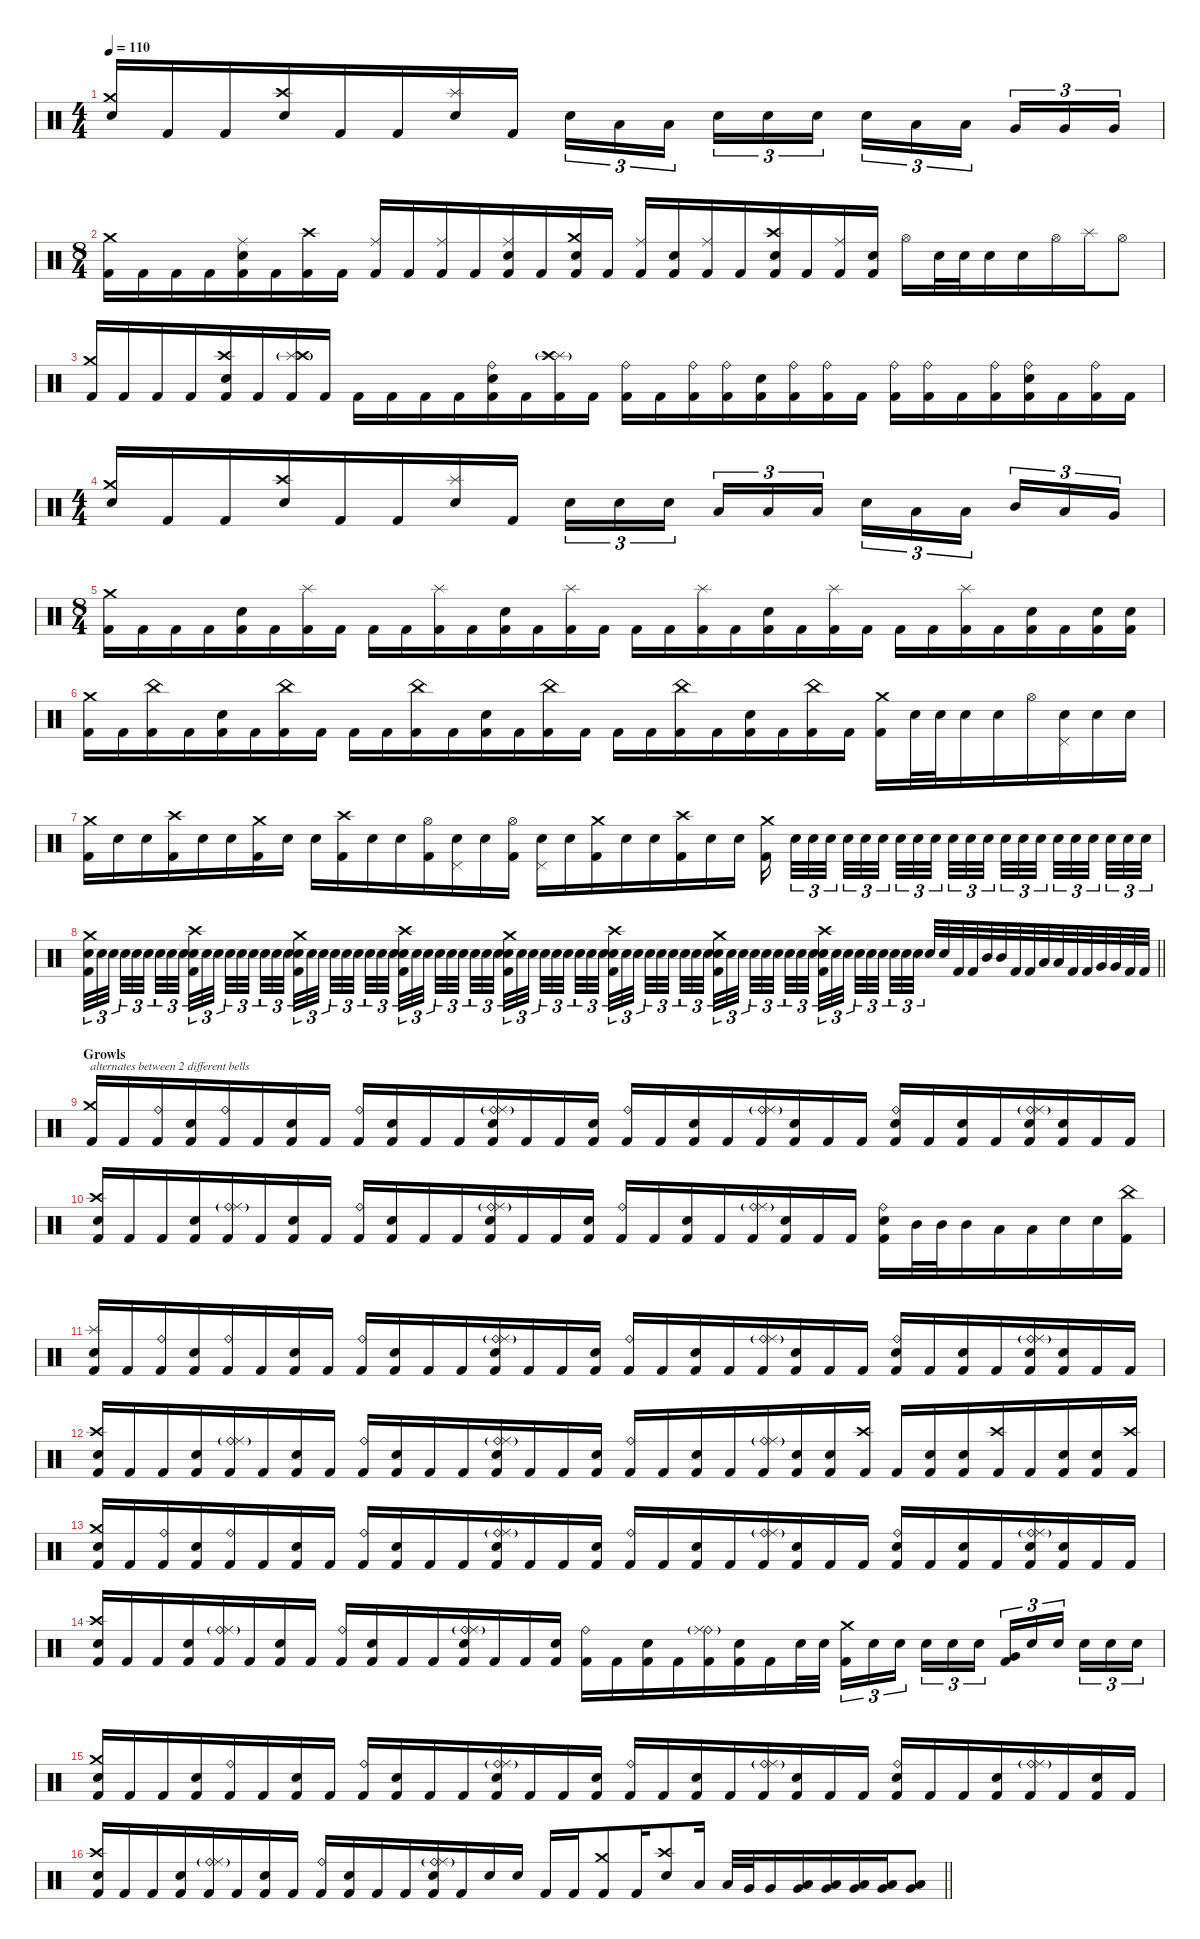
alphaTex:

\defaultSystemsLayout 4
\hideDynamics
\bracketExtendMode nobrackets
\singleTrackTrackNamePolicy hidden
\multiTrackTrackNamePolicy hidden
\firstSystemTrackNameMode fullname
\firstSystemTrackNameOrientation horizontal
\otherSystemsTrackNameOrientation horizontal
\track ("Drums" "drm.") {instrument percussion}
\staff {score}
\articulation defaults
\ts (4 4)
\beaming (8 4 4 4 4)
\tempo 110
\clef neutral
\ks c
("Crash medium (hit)" "Snare (hit) 2").16{dy f beam Up} "Kick (hit) 2".16{beam Up} "Kick (hit) 2".16{beam Up} ("Crash high (hit)" "Snare (hit) 2").16{beam Up} "Kick (hit) 2".16{beam Up} "Kick (hit) 2".16{beam Up} ("Splash (hit)" "Snare (hit) 2").16{beam Up} "Kick (hit) 2".16{beam Up} "Snare (hit) 2".16{tu (3 2) beam Down} "Low Tom (hit)".16{tu (3 2) beam Down} "Low Tom (hit)".16{tu (3 2) beam Down} "Snare (hit) 2".16{tu (3 2) beam Down} "Snare (hit) 2".16{tu (3 2) beam Down} "Snare (hit) 2".16{tu (3 2) beam Down} "Snare (hit) 2".16{tu (3 2) beam Down} "Low Tom (hit)".16{tu (3 2) beam Down} "Low Tom (hit)".16{tu (3 2) beam Down} "Very Low Tom (hit)".16{tu (3 2) beam Up} "Very Low Tom (hit)".16{tu (3 2) beam Up} "Very Low Tom (hit)".16{tu (3 2) beam Up} |
\ts (8 4)
\beaming (8 4 4 4 4)
("Crash medium (hit)" "Kick (hit) 2").16{beam Down} "Kick (hit) 2".16{beam Down} "Kick (hit) 2".16{beam Down} "Kick (hit) 2".16{beam Down} ("Ride (middle)" "Snare (hit) 2" "Kick (hit) 2").16{beam Down} "Kick (hit) 2".16{beam Down} ("Crash high (hit)" "Kick (hit) 2").16{beam Down} "Kick (hit) 2".16{beam Down} ("Ride (middle)" "Kick (hit) 2").16{beam Up} "Kick (hit) 2".16{beam Up} ("Ride (middle)" "Kick (hit) 2").16{beam Up} "Kick (hit) 2".16{beam Up} ("Ride (middle)" "Snare (hit) 2" "Kick (hit) 2").16{beam Up} "Kick (hit) 2".16{beam Up} ("Crash medium (hit)" "Snare (hit) 2" "Kick (hit) 2").16{beam Up} "Kick (hit) 2".16{beam Up} ("Ride (middle)" "Kick (hit) 2").16{beam Up} ("Snare (hit) 2" "Kick (hit) 2").16{beam Up} ("Ride (middle)" "Kick (hit) 2").16{beam Up} "Kick (hit) 2".16{beam Up} ("Crash high (hit)" "Snare (hit) 2" "Kick (hit) 2").16{beam Up} "Kick (hit) 2".16{beam Up} ("Ride (middle)" "Kick (hit) 2").16{beam Up} ("Snare (hit) 2" "Kick (hit) 2").16{beam Up} "Hi-Hat (open)".16{beam Down} "Snare (hit) 2".32{dy p beam Down} "Snare (hit) 2".32{dy mp beam Down} "Snare (hit) 2".16{dy f beam Down} "Snare (hit) 2".16{beam Down} "Hi-Hat (open)".16{beam Down} "Splash (hit)".16{beam Down} "Hi-Hat (open)".8{beam Down} |
("Crash medium (hit)" "Kick (hit) 2").16{beam Up} "Kick (hit) 2".16{beam Up} "Kick (hit) 2".16{beam Up} "Kick (hit) 2".16{beam Up} ("Crash high (hit)" "Snare (hit) 2" "Kick (hit) 2").16{beam Up} "Kick (hit) 2".16{beam Up} ("Splash (hit)" "Crash high (hit)"{g} "Kick (hit) 2").16{beam Up} "Kick (hit) 2".16{beam Up} "Kick (hit) 2".16{beam Down} "Kick (hit) 2".16{beam Down} "Kick (hit) 2".16{beam Down} "Kick (hit) 2".16{beam Down} ("Ride (bell)" "Snare (hit) 2" "Kick (hit) 2").16{beam Down} "Kick (hit) 2".16{beam Down} ("Splash (hit)" "Crash high (hit)"{g} "Kick (hit) 2").16{beam Down} "Kick (hit) 2".16{beam Down} ("Ride (bell)" "Kick (hit) 2").16{dy p beam Down} "Kick (hit) 2".16{dy f beam Down} ("Ride (bell)" "Kick (hit) 2").16{dy mp beam Down} ("Ride (bell)" "Kick (hit) 2").16{dy mf beam Down} ("Snare (hit) 2" "Kick (hit) 2").16{dy f beam Down} ("Ride (bell)" "Kick (hit) 2").16{dy mp beam Down} ("Ride (bell)" "Kick (hit) 2").16{dy mf beam Down} "Kick (hit) 2".16{dy f beam Down} ("Ride (bell)" "Kick (hit) 2").16{dy mp beam Down} ("Ride (bell)" "Kick (hit) 2").16{dy mf beam Down} "Kick (hit) 2".16{dy f beam Down} ("Ride (bell)" "Kick (hit) 2").16{dy mp beam Down} ("Ride (bell)" "Snare (hit) 2" "Kick (hit) 2").16{dy mf beam Down} "Kick (hit) 2".16{dy f beam Down} ("Ride (bell)" "Kick (hit) 2").16{dy mp beam Down} "Kick (hit) 2".16{dy f beam Down} |
\ts (4 4)
\beaming (8 4 4 4 4)
("Crash medium (hit)" "Snare (hit) 2").16{beam Up} "Kick (hit) 2".16{beam Up} "Kick (hit) 2".16{beam Up} ("Crash high (hit)" "Snare (hit) 2").16{beam Up} "Kick (hit) 2".16{beam Up} "Kick (hit) 2".16{beam Up} ("Splash (hit)" "Snare (hit) 2").16{beam Up} "Kick (hit) 2".16{beam Up} "Snare (hit) 2".16{tu (3 2) beam Down} "Snare (hit) 2".16{tu (3 2) beam Down} "Snare (hit) 2".16{tu (3 2) beam Down} "Low Tom (hit)".16{tu (3 2) beam Up} "Low Tom (hit)".16{tu (3 2) beam Up} "Low Tom (hit)".16{tu (3 2) beam Up} "Snare (hit) 2".16{tu (3 2) beam Down} "Low Tom (hit)".16{tu (3 2) beam Down} "Low Tom (hit)".16{tu (3 2) beam Down} "Mid Tom (hit)".16{tu (3 2) beam Up} "Low Tom (hit)".16{tu (3 2) beam Up} "Very Low Tom (hit)".16{tu (3 2) beam Up} |
\ts (8 4)
\beaming (8 4 4 4 4)
("Crash medium (hit)" "Kick (hit) 2").16{beam Down} "Kick (hit) 2".16{beam Down} "Kick (hit) 2".16{beam Down} "Kick (hit) 2".16{beam Down} ("Snare (hit) 2" "Kick (hit) 2").16{beam Down} "Kick (hit) 2".16{beam Down} ("Splash (hit)" "Kick (hit) 2").16{beam Down} "Kick (hit) 2".16{beam Down} "Kick (hit) 2".16{beam Down} "Kick (hit) 2".16{beam Down} ("Splash (hit)" "Kick (hit) 2").16{beam Down} "Kick (hit) 2".16{beam Down} ("Snare (hit) 2" "Kick (hit) 2").16{beam Down} "Kick (hit) 2".16{beam Down} ("Splash (hit)" "Kick (hit) 2").16{beam Down} "Kick (hit) 2".16{beam Down} "Kick (hit) 2".16{beam Down} "Kick (hit) 2".16{beam Down} ("Splash (hit)" "Kick (hit) 2").16{beam Down} "Kick (hit) 2".16{beam Down} ("Snare (hit) 2" "Kick (hit) 2").16{beam Down} "Kick (hit) 2".16{beam Down} ("Splash (hit)" "Kick (hit) 2").16{beam Down} "Kick (hit) 2".16{beam Down} "Kick (hit) 2".16{beam Down} "Kick (hit) 2".16{beam Down} ("Splash (hit)" "Kick (hit) 2").16{beam Down} "Kick (hit) 2".16{beam Down} ("Snare (hit) 2" "Kick (hit) 2").16{beam Down} "Kick (hit) 2".16{beam Down} ("Snare (hit) 2" "Kick (hit) 2").16{beam Down} ("Snare (hit) 2" "Kick (hit) 2").16{beam Down} |
("Crash medium (hit)" "Kick (hit) 2").16{beam Down} "Kick (hit) 2".16{beam Down} ("China (hit)" "Kick (hit) 2").16{beam Down} "Kick (hit) 2".16{beam Down} ("Snare (hit) 2" "Kick (hit) 2").16{beam Down} "Kick (hit) 2".16{beam Down} ("China (hit)" "Kick (hit) 2").16{beam Down} "Kick (hit) 2".16{beam Down} "Kick (hit) 2".16{beam Down} "Kick (hit) 2".16{beam Down} ("China (hit)" "Kick (hit) 2").16{beam Down} "Kick (hit) 2".16{beam Down} ("Snare (hit) 2" "Kick (hit) 2").16{beam Down} "Kick (hit) 2".16{beam Down} ("China (hit)" "Kick (hit) 2").16{beam Down} "Kick (hit) 2".16{beam Down} "Kick (hit) 2".16{beam Down} "Kick (hit) 2".16{beam Down} ("China (hit)" "Kick (hit) 2").16{beam Down} "Kick (hit) 2".16{beam Down} ("Snare (hit) 2" "Kick (hit) 2").16{beam Down} "Kick (hit) 2".16{beam Down} ("China (hit)" "Kick (hit) 2").16{beam Down} "Kick (hit) 2".16{beam Down} ("Crash medium (hit)" "Kick (hit) 2").16{beam Down} "Snare (hit) 2".32{dy mp beam Down} "Snare (hit) 2".32{dy mf beam Down} "Snare (hit) 2".16{dy f beam Down} "Snare (hit) 2".16{beam Down} "Hi-Hat (open)".16{beam Down} ("Pedal Hi-Hat (hit)" "Snare (hit) 2").16{beam Down} "Snare (hit) 2".16{beam Down} "Snare (hit) 2".16{beam Down} |
("Crash medium (hit)" "Kick (hit) 2").16{beam Down} "Snare (hit) 2".16{beam Down} "Snare (hit) 2".16{beam Down} ("Crash high (hit)" "Kick (hit) 2").16{beam Down} "Snare (hit) 2".16{beam Down} "Snare (hit) 2".16{beam Down} ("Crash medium (hit)" "Kick (hit) 2").16{beam Down} "Snare (hit) 2".16{beam Down} "Snare (hit) 2".16{beam Down} ("Crash high (hit)" "Kick (hit) 2").16{beam Down} "Snare (hit) 2".16{beam Down} "Snare (hit) 2".16{beam Down} ("Hi-Hat (open)" "Kick (hit) 2").16{beam Down} ("Pedal Hi-Hat (hit)" "Snare (hit) 2").16{beam Down} "Snare (hit) 2".16{beam Down} ("Hi-Hat (open)" "Kick (hit) 2").16{beam Down} ("Pedal Hi-Hat (hit)" "Snare (hit) 2").16{beam Down} "Snare (hit) 2".16{beam Down} ("Crash medium (hit)" "Kick (hit) 2").16{beam Down} "Snare (hit) 2".16{beam Down} "Snare (hit) 2".16{beam Down} ("Crash high (hit)" "Kick (hit) 2").16{beam Down} "Snare (hit) 2".16{beam Down} "Snare (hit) 2".16{beam Down} ("Crash medium (hit)" "Kick (hit) 2").16{beam Down} "Snare (hit) 2".32{tu (3 2) dy p beam Down} "Snare (hit) 2".32{tu (3 2) beam Down} "Snare (hit) 2".32{tu (3 2) beam Down} "Snare (hit) 2".32{tu (3 2) beam Down} "Snare (hit) 2".32{tu (3 2) beam Down} "Snare (hit) 2".32{tu (3 2) beam Down} "Snare (hit) 2".32{tu (3 2) beam Down} "Snare (hit) 2".32{tu (3 2) beam Down} "Snare (hit) 2".32{tu (3 2) beam Down} "Snare (hit) 2".32{tu (3 2) beam Down} "Snare (hit) 2".32{tu (3 2) beam Down} "Snare (hit) 2".32{tu (3 2) beam Down} "Snare (hit) 2".32{tu (3 2) beam Down} "Snare (hit) 2".32{tu (3 2) beam Down} "Snare (hit) 2".32{tu (3 2) beam Down} "Snare (hit) 2".32{tu (3 2) beam Down} "Snare (hit) 2".32{tu (3 2) beam Down} "Snare (hit) 2".32{tu (3 2) beam Down} "Snare (hit) 2".32{tu (3 2) beam Down} "Snare (hit) 2".32{tu (3 2) beam Down} "Snare (hit) 2".32{tu (3 2) beam Down} |
\barLineRight lightlight
("Crash medium (hit)" "Snare (hit) 2" "Kick (hit) 2").32{tu (3 2) dy f beam Down} "Snare (hit) 2".32{tu (3 2) dy p beam Down} "Snare (hit) 2".32{tu (3 2) beam Down} "Snare (hit) 2".32{tu (3 2) beam Down} "Snare (hit) 2".32{tu (3 2) beam Down} "Snare (hit) 2".32{tu (3 2) beam Down} "Snare (hit) 2".32{tu (3 2) beam Down} "Snare (hit) 2".32{tu (3 2) beam Down} "Snare (hit) 2".32{tu (3 2) beam Down} ("Crash high (hit)" "Snare (hit) 2" "Kick (hit) 2").32{tu (3 2) dy f beam Down} "Snare (hit) 2".32{tu (3 2) dy p beam Down} "Snare (hit) 2".32{tu (3 2) beam Down} "Snare (hit) 2".32{tu (3 2) beam Down} "Snare (hit) 2".32{tu (3 2) beam Down} "Snare (hit) 2".32{tu (3 2) beam Down} "Snare (hit) 2".32{tu (3 2) beam Down} "Snare (hit) 2".32{tu (3 2) beam Down} "Snare (hit) 2".32{tu (3 2) beam Down} ("Crash medium (hit)" "Snare (hit) 2" "Kick (hit) 2").32{tu (3 2) dy f beam Down} "Snare (hit) 2".32{tu (3 2) dy p beam Down} "Snare (hit) 2".32{tu (3 2) beam Down} "Snare (hit) 2".32{tu (3 2) beam Down} "Snare (hit) 2".32{tu (3 2) beam Down} "Snare (hit) 2".32{tu (3 2) beam Down} "Snare (hit) 2".32{tu (3 2) beam Down} "Snare (hit) 2".32{tu (3 2) beam Down} "Snare (hit) 2".32{tu (3 2) beam Down} ("Crash high (hit)" "Snare (hit) 2" "Kick (hit) 2").32{tu (3 2) dy f beam Down} "Snare (hit) 2".32{tu (3 2) dy p beam Down} "Snare (hit) 2".32{tu (3 2) beam Down} "Snare (hit) 2".32{tu (3 2) beam Down} "Snare (hit) 2".32{tu (3 2) beam Down} "Snare (hit) 2".32{tu (3 2) beam Down} "Snare (hit) 2".32{tu (3 2) beam Down} "Snare (hit) 2".32{tu (3 2) beam Down} "Snare (hit) 2".32{tu (3 2) beam Down} ("Crash medium (hit)" "Snare (hit) 2" "Kick (hit) 2").32{tu (3 2) dy f beam Down} "Snare (hit) 2".32{tu (3 2) dy p beam Down} "Snare (hit) 2".32{tu (3 2) beam Down} "Snare (hit) 2".32{tu (3 2) beam Down} "Snare (hit) 2".32{tu (3 2) beam Down} "Snare (hit) 2".32{tu (3 2) beam Down} "Snare (hit) 2".32{tu (3 2) beam Down} "Snare (hit) 2".32{tu (3 2) beam Down} "Snare (hit) 2".32{tu (3 2) beam Down} ("Crash high (hit)" "Snare (hit) 2" "Kick (hit) 2").32{tu (3 2) dy f beam Down} "Snare (hit) 2".32{tu (3 2) dy p beam Down} "Snare (hit) 2".32{tu (3 2) beam Down} "Snare (hit) 2".32{tu (3 2) beam Down} "Snare (hit) 2".32{tu (3 2) beam Down} "Snare (hit) 2".32{tu (3 2) beam Down} "Snare (hit) 2".32{tu (3 2) beam Down} "Snare (hit) 2".32{tu (3 2) beam Down} "Snare (hit) 2".32{tu (3 2) beam Down} ("Crash medium (hit)" "Snare (hit) 2" "Kick (hit) 2").32{tu (3 2) dy f beam Down} "Snare (hit) 2".32{tu (3 2) dy p beam Down} "Snare (hit) 2".32{tu (3 2) beam Down} "Snare (hit) 2".32{tu (3 2) beam Down} "Snare (hit) 2".32{tu (3 2) beam Down} "Snare (hit) 2".32{tu (3 2) beam Down} "Snare (hit) 2".32{tu (3 2) beam Down} "Snare (hit) 2".32{tu (3 2) beam Down} "Snare (hit) 2".32{tu (3 2) beam Down} ("Crash high (hit)" "Snare (hit) 2" "Kick (hit) 2").32{tu (3 2) dy f beam Down} "Snare (hit) 2".32{tu (3 2) dy p beam Down} "Snare (hit) 2".32{tu (3 2) beam Down} "Snare (hit) 2".32{tu (3 2) beam Down} "Snare (hit) 2".32{tu (3 2) beam Down} "Snare (hit) 2".32{tu (3 2) beam Down} "Snare (hit) 2".32{tu (3 2) beam Down} "Snare (hit) 2".32{tu (3 2) beam Down} "Snare (hit) 2".32{tu (3 2) beam Down} "Snare (hit) 2".32{dy f beam Up} "Snare (hit) 2".32{beam Up} "Kick (hit) 2".32{beam Up} "Kick (hit) 2".32{beam Up} "Mid Tom (hit)".32{beam Up} "Mid Tom (hit)".32{beam Up} "Kick (hit) 2".32{beam Up} "Kick (hit) 2".32{beam Up} "Low Tom (hit)".32{beam Up} "Low Tom (hit)".32{beam Up} "Kick (hit) 2".32{beam Up} "Kick (hit) 2".32{beam Up} "Very Low Tom (hit)".32{beam Up} "Very Low Tom (hit)".32{beam Up} "Kick (hit) 2".32{beam Up} "Kick (hit) 2".32{beam Up} |
\section ("" "Growls")
("Crash medium (hit)" "Kick (hit) 2").16{txt "alternates between 2 different bells" beam Up} "Kick (hit) 2".16{beam Up} ("Ride (bell)" "Kick (hit) 2").16{beam Up} ("Snare (hit) 2" "Kick (hit) 2").16{beam Up} ("Ride (bell)" "Kick (hit) 2").16{beam Up} "Kick (hit) 2".16{beam Up} ("Snare (hit) 2" "Kick (hit) 2").16{beam Up} "Kick (hit) 2".16{beam Up} ("Ride (bell)" "Kick (hit) 2").16{beam Up} ("Snare (hit) 2" "Kick (hit) 2").16{beam Up} "Kick (hit) 2".16{beam Up} "Kick (hit) 2".16{beam Up} ("Ride (bell)" "Ride (middle)"{g} "Snare (hit) 2" "Kick (hit) 2").16{beam Up} "Kick (hit) 2".16{beam Up} "Kick (hit) 2".16{beam Up} ("Snare (hit) 2" "Kick (hit) 2").16{beam Up} ("Ride (bell)" "Kick (hit) 2").16{beam Up} "Kick (hit) 2".16{beam Up} ("Snare (hit) 2" "Kick (hit) 2").16{beam Up} "Kick (hit) 2".16{beam Up} ("Ride (bell)" "Ride (middle)"{g} "Kick (hit) 2").16{beam Up} ("Snare (hit) 2" "Kick (hit) 2").16{beam Up} "Kick (hit) 2".16{beam Up} "Kick (hit) 2".16{beam Up} ("Ride (bell)" "Snare (hit) 2" "Kick (hit) 2").16{beam Up} "Kick (hit) 2".16{beam Up} ("Snare (hit) 2" "Kick (hit) 2").16{beam Up} "Kick (hit) 2".16{beam Up} ("Ride (bell)" "Ride (middle)"{g} "Snare (hit) 2" "Kick (hit) 2").16{beam Up} ("Snare (hit) 2" "Kick (hit) 2").16{beam Up} "Kick (hit) 2".16{beam Up} "Kick (hit) 2".16{beam Up} |
("Crash high (hit)" "Snare (hit) 2" "Kick (hit) 2").16{beam Up} "Kick (hit) 2".16{beam Up} "Kick (hit) 2".16{beam Up} ("Snare (hit) 2" "Kick (hit) 2").16{beam Up} ("Ride (bell)" "Ride (middle)"{g} "Kick (hit) 2").16{beam Up} "Kick (hit) 2".16{beam Up} ("Snare (hit) 2" "Kick (hit) 2").16{beam Up} "Kick (hit) 2".16{beam Up} ("Ride (bell)" "Kick (hit) 2").16{beam Up} ("Snare (hit) 2" "Kick (hit) 2").16{beam Up} "Kick (hit) 2".16{beam Up} "Kick (hit) 2".16{beam Up} ("Ride (bell)" "Ride (middle)"{g} "Snare (hit) 2" "Kick (hit) 2").16{beam Up} "Kick (hit) 2".16{beam Up} "Kick (hit) 2".16{beam Up} ("Snare (hit) 2" "Kick (hit) 2").16{beam Up} ("Ride (bell)" "Kick (hit) 2").16{beam Up} "Kick (hit) 2".16{beam Up} ("Snare (hit) 2" "Kick (hit) 2").16{beam Up} "Kick (hit) 2".16{beam Up} ("Ride (bell)" "Ride (middle)"{g} "Kick (hit) 2").16{beam Up} ("Snare (hit) 2" "Kick (hit) 2").16{beam Up} "Kick (hit) 2".16{beam Up} "Kick (hit) 2".16{beam Up} ("Ride (bell)" "Snare (hit) 2" "Kick (hit) 2").16{beam Down} "Mid Tom (hit)".32{beam Down} "Mid Tom (hit)".32{beam Down} "Mid Tom (hit)".16{beam Down} "Low Tom (hit)".16{beam Down} "Low Tom (hit)".16{beam Down} "Snare (hit) 2".16{beam Down} "Snare (hit) 2".16{beam Down} ("China (hit)" "Kick (hit) 2").16{beam Down} |
("Splash (hit)" "Snare (hit) 2" "Kick (hit) 2").16{dy fff beam Up} "Kick (hit) 2".16{dy f beam Up} ("Ride (bell)" "Kick (hit) 2").16{dy mp beam Up} ("Snare (hit) 2" "Kick (hit) 2").16{dy f beam Up} ("Ride (bell)" "Kick (hit) 2").16{beam Up} "Kick (hit) 2".16{beam Up} ("Snare (hit) 2" "Kick (hit) 2").16{beam Up} "Kick (hit) 2".16{beam Up} ("Ride (bell)" "Kick (hit) 2").16{beam Up} ("Snare (hit) 2" "Kick (hit) 2").16{beam Up} "Kick (hit) 2".16{beam Up} "Kick (hit) 2".16{beam Up} ("Ride (bell)" "Ride (middle)"{g} "Snare (hit) 2" "Kick (hit) 2").16{beam Up} "Kick (hit) 2".16{beam Up} "Kick (hit) 2".16{beam Up} ("Snare (hit) 2" "Kick (hit) 2").16{beam Up} ("Ride (bell)" "Kick (hit) 2").16{beam Up} "Kick (hit) 2".16{beam Up} ("Snare (hit) 2" "Kick (hit) 2").16{beam Up} "Kick (hit) 2".16{beam Up} ("Ride (bell)" "Ride (middle)"{g} "Kick (hit) 2").16{beam Up} ("Snare (hit) 2" "Kick (hit) 2").16{beam Up} "Kick (hit) 2".16{beam Up} "Kick (hit) 2".16{beam Up} ("Ride (bell)" "Snare (hit) 2" "Kick (hit) 2").16{beam Up} "Kick (hit) 2".16{beam Up} ("Snare (hit) 2" "Kick (hit) 2").16{beam Up} "Kick (hit) 2".16{beam Up} ("Ride (bell)" "Ride (middle)"{g} "Snare (hit) 2" "Kick (hit) 2").16{beam Up} ("Snare (hit) 2" "Kick (hit) 2").16{beam Up} "Kick (hit) 2".16{beam Up} "Kick (hit) 2".16{beam Up} |
("Crash high (hit)" "Snare (hit) 2" "Kick (hit) 2").16{beam Up} "Kick (hit) 2".16{beam Up} "Kick (hit) 2".16{beam Up} ("Snare (hit) 2" "Kick (hit) 2").16{beam Up} ("Ride (bell)" "Ride (middle)"{g} "Kick (hit) 2").16{beam Up} "Kick (hit) 2".16{beam Up} ("Snare (hit) 2" "Kick (hit) 2").16{beam Up} "Kick (hit) 2".16{beam Up} ("Ride (bell)" "Kick (hit) 2").16{beam Up} ("Snare (hit) 2" "Kick (hit) 2").16{beam Up} "Kick (hit) 2".16{beam Up} "Kick (hit) 2".16{beam Up} ("Ride (bell)" "Ride (middle)"{g} "Snare (hit) 2" "Kick (hit) 2").16{beam Up} "Kick (hit) 2".16{beam Up} "Kick (hit) 2".16{beam Up} ("Snare (hit) 2" "Kick (hit) 2").16{beam Up} ("Ride (bell)" "Kick (hit) 2").16{beam Up} "Kick (hit) 2".16{beam Up} ("Snare (hit) 2" "Kick (hit) 2").16{beam Up} "Kick (hit) 2".16{beam Up} ("Ride (bell)" "Ride (middle)"{g} "Kick (hit) 2").16{beam Up} ("Snare (hit) 2" "Kick (hit) 2").16{beam Up} ("Snare (hit) 2" "Kick (hit) 2").16{beam Up} ("Crash high (hit)" "Kick (hit) 2").16{beam Up} "Kick (hit) 2".16{beam Up} ("Snare (hit) 2" "Kick (hit) 2").16{beam Up} ("Snare (hit) 2" "Kick (hit) 2").16{beam Up} ("Crash high (hit)" "Kick (hit) 2").16{beam Up} "Kick (hit) 2".16{beam Up} ("Snare (hit) 2" "Kick (hit) 2").16{beam Up} ("Snare (hit) 2" "Kick (hit) 2").16{beam Up} ("Crash high (hit)" "Kick (hit) 2").16{beam Up} |
("Crash medium (hit)" "Snare (hit) 2" "Kick (hit) 2").16{beam Up} "Kick (hit) 2".16{beam Up} ("Ride (bell)" "Kick (hit) 2").16{dy mp beam Up} ("Snare (hit) 2" "Kick (hit) 2").16{dy f beam Up} ("Ride (bell)" "Kick (hit) 2").16{beam Up} "Kick (hit) 2".16{beam Up} ("Snare (hit) 2" "Kick (hit) 2").16{beam Up} "Kick (hit) 2".16{beam Up} ("Ride (bell)" "Kick (hit) 2").16{beam Up} ("Snare (hit) 2" "Kick (hit) 2").16{beam Up} "Kick (hit) 2".16{beam Up} "Kick (hit) 2".16{beam Up} ("Ride (bell)" "Ride (middle)"{g} "Snare (hit) 2" "Kick (hit) 2").16{beam Up} "Kick (hit) 2".16{beam Up} "Kick (hit) 2".16{beam Up} ("Snare (hit) 2" "Kick (hit) 2").16{beam Up} ("Ride (bell)" "Kick (hit) 2").16{beam Up} "Kick (hit) 2".16{beam Up} ("Snare (hit) 2" "Kick (hit) 2").16{beam Up} "Kick (hit) 2".16{beam Up} ("Ride (bell)" "Ride (middle)"{g} "Kick (hit) 2").16{beam Up} ("Snare (hit) 2" "Kick (hit) 2").16{beam Up} "Kick (hit) 2".16{beam Up} "Kick (hit) 2".16{beam Up} ("Ride (bell)" "Snare (hit) 2" "Kick (hit) 2").16{beam Up} "Kick (hit) 2".16{beam Up} ("Snare (hit) 2" "Kick (hit) 2").16{beam Up} "Kick (hit) 2".16{beam Up} ("Ride (bell)" "Ride (middle)"{g} "Snare (hit) 2" "Kick (hit) 2").16{beam Up} ("Snare (hit) 2" "Kick (hit) 2").16{beam Up} "Kick (hit) 2".16{beam Up} "Kick (hit) 2".16{beam Up} |
("Crash high (hit)" "Snare (hit) 2" "Kick (hit) 2").16{beam Up} "Kick (hit) 2".16{beam Up} "Kick (hit) 2".16{beam Up} ("Snare (hit) 2" "Kick (hit) 2").16{beam Up} ("Ride (bell)" "Ride (middle)"{g} "Kick (hit) 2").16{beam Up} "Kick (hit) 2".16{beam Up} ("Snare (hit) 2" "Kick (hit) 2").16{beam Up} "Kick (hit) 2".16{beam Up} ("Ride (bell)" "Kick (hit) 2").16{beam Up} ("Snare (hit) 2" "Kick (hit) 2").16{beam Up} "Kick (hit) 2".16{beam Up} "Kick (hit) 2".16{beam Up} ("Ride (bell)" "Ride (middle)"{g} "Snare (hit) 2" "Kick (hit) 2").16{beam Up} "Kick (hit) 2".16{beam Up} "Kick (hit) 2".16{beam Up} ("Snare (hit) 2" "Kick (hit) 2").16{beam Up} ("Ride (bell)" "Kick (hit) 2").16{beam Down} "Kick (hit) 2".16{beam Down} ("Snare (hit) 2" "Kick (hit) 2").16{beam Down} "Kick (hit) 2".16{beam Down} ("Ride (bell)" "Ride (middle)"{g} "Kick (hit) 2").16{beam Down} ("Snare (hit) 2" "Kick (hit) 2").16{beam Down} "Kick (hit) 2".16{beam Down} "Snare (hit) 2".32{dy p beam Down} "Snare (hit) 2".32{dy mp beam Down} ("Crash medium (hit)" "Kick (hit) 2").16{tu (3 2) dy f beam Down} "Snare (hit) 2".16{tu (3 2) beam Down} "Snare (hit) 2".16{tu (3 2) beam Down} "Snare (hit) 2".16{tu (3 2) beam Down} "Snare (hit) 2".16{tu (3 2) beam Down} "Snare (hit) 2".16{tu (3 2) beam Down} ("Very Low Tom (hit)" "Kick (hit) 2").16{tu (3 2) beam Up} "Snare (hit) 2".16{tu (3 2) beam Up} "Snare (hit) 2".16{tu (3 2) beam Up} "Snare (hit) 2".16{tu (3 2) beam Down} "Snare (hit) 2".16{tu (3 2) beam Down} "Snare (hit) 2".16{tu (3 2) beam Down} |
("Crash medium (hit)" "Snare (hit) 2" "Kick (hit) 2").16{beam Up} "Kick (hit) 2".16{beam Up} "Kick (hit) 2".16{beam Up} ("Snare (hit) 2" "Kick (hit) 2").16{beam Up} ("Ride (bell)" "Kick (hit) 2").16{beam Up} "Kick (hit) 2".16{beam Up} ("Snare (hit) 2" "Kick (hit) 2").16{beam Up} "Kick (hit) 2".16{beam Up} ("Ride (bell)" "Kick (hit) 2").16{beam Up} ("Snare (hit) 2" "Kick (hit) 2").16{beam Up} "Kick (hit) 2".16{beam Up} "Kick (hit) 2".16{beam Up} ("Ride (bell)" "Ride (middle)"{g} "Snare (hit) 2" "Kick (hit) 2").16{beam Up} "Kick (hit) 2".16{beam Up} "Kick (hit) 2".16{beam Up} ("Snare (hit) 2" "Kick (hit) 2").16{beam Up} ("Ride (bell)" "Kick (hit) 2").16{beam Up} "Kick (hit) 2".16{beam Up} ("Snare (hit) 2" "Kick (hit) 2").16{beam Up} "Kick (hit) 2".16{beam Up} ("Ride (bell)" "Ride (middle)"{g} "Kick (hit) 2").16{beam Up} ("Snare (hit) 2" "Kick (hit) 2").16{beam Up} "Kick (hit) 2".16{beam Up} "Kick (hit) 2".16{beam Up} ("Ride (bell)" "Snare (hit) 2" "Kick (hit) 2").16{beam Up} "Kick (hit) 2".16{beam Up} "Kick (hit) 2".16{beam Up} ("Snare (hit) 2" "Kick (hit) 2").16{beam Up} ("Ride (bell)" "Ride (middle)"{g} "Kick (hit) 2").16{beam Up} "Kick (hit) 2".16{beam Up} ("Snare (hit) 2" "Kick (hit) 2").16{beam Up} "Kick (hit) 2".16{beam Up} |
\barLineRight lightlight
("Crash high (hit)" "Snare (hit) 2" "Kick (hit) 2").16{beam Up} "Kick (hit) 2".16{beam Up} "Kick (hit) 2".16{beam Up} ("Snare (hit) 2" "Kick (hit) 2").16{beam Up} ("Ride (bell)" "Ride (middle)"{g} "Kick (hit) 2").16{beam Up} "Kick (hit) 2".16{beam Up} ("Snare (hit) 2" "Kick (hit) 2").16{beam Up} "Kick (hit) 2".16{beam Up} ("Ride (bell)" "Kick (hit) 2").16{beam Up} ("Snare (hit) 2" "Kick (hit) 2").16{beam Up} "Kick (hit) 2".16{beam Up} "Kick (hit) 2".16{beam Up} ("Ride (bell)" "Ride (middle)"{g} "Snare (hit) 2" "Kick (hit) 2").16{beam Up} "Kick (hit) 2".16{beam Up} "Snare (hit) 2".16{beam Up} "Snare (hit) 2".16{beam Up} "Kick (hit) 2".16{beam Up} "Kick (hit) 2".16{beam Up} ("Crash medium (hit)" "Kick (hit) 2").8{beam Up} "Kick (hit) 2".16{beam Up} ("Crash high (hit)" "Snare (hit) 2").8{beam Up} "Low Tom (hit)".16{beam Up} "Low Tom (hit)".32{beam Up} "Very Low Tom (hit)".32{beam Up} "Very Low Tom (hit)".16{beam Up} ("Low Tom (hit)" "Very Low Tom (hit)").16{beam Up} ("Low Tom (hit)" "Very Low Tom (hit)").16{beam Up} ("Very Low Tom (hit)" "Low Floor Tom (hit)").16{beam Up} ("Very Low Tom (hit)" "Low Floor Tom (hit)").16{beam Up} ("Very Low Tom (hit)" "Low Floor Tom (hit)").8{beam Up}
